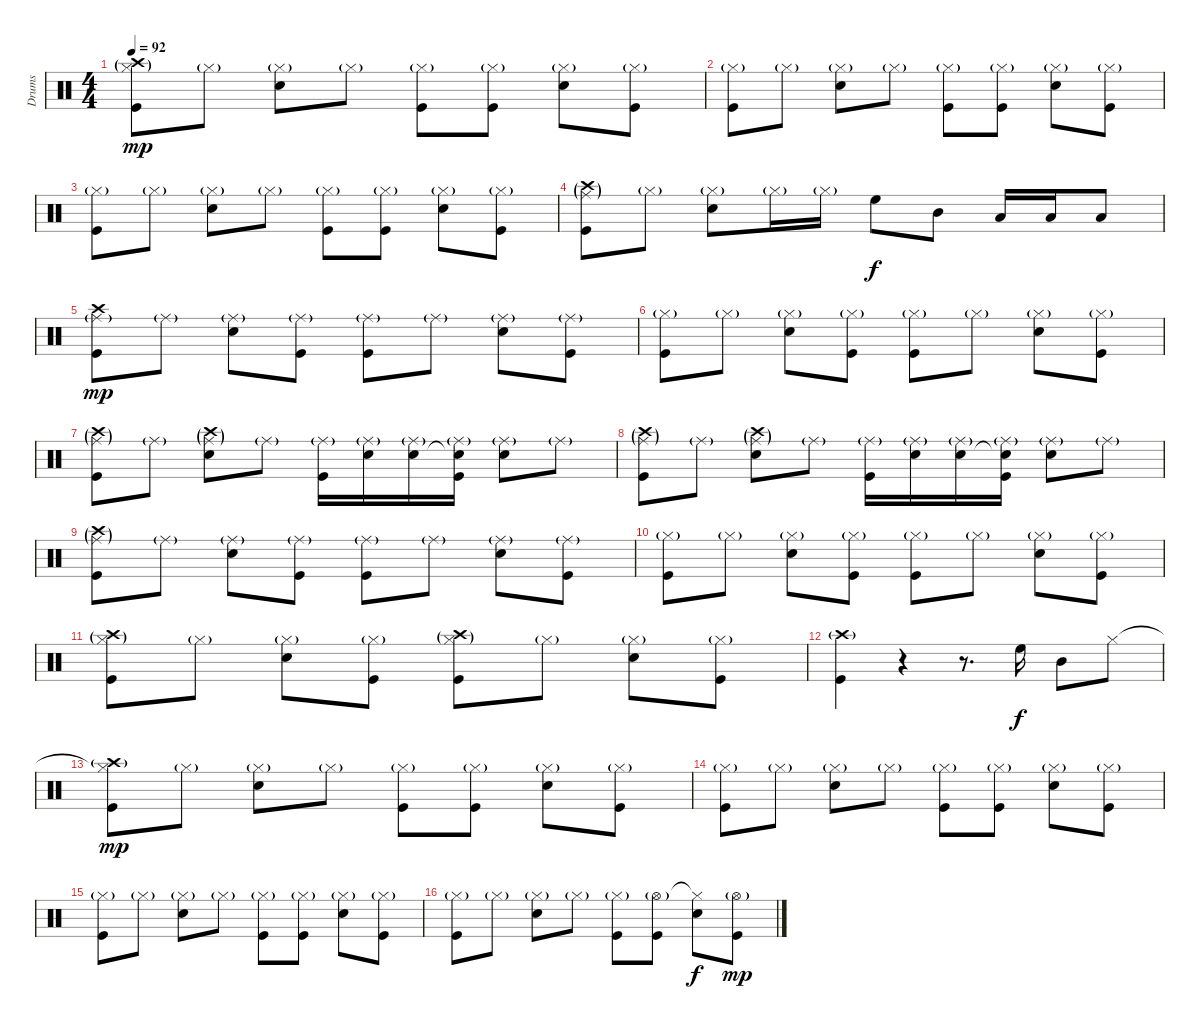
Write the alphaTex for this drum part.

\track ("Drums" "Drums") {instrument percussion}
\staff {score}
\articulation defaults
\ts (4 4)
\tempo 92
\clef neutral
\ks c
("Hi-Hat (closed)"{g} "Crash high (hit)"{g} "Kick (hit)").8{dy mp} "Hi-Hat (closed)"{g}.8 ("Hi-Hat (closed)"{g} "Snare (hit) 2").8 "Hi-Hat (closed)"{g}.8 ("Hi-Hat (closed)"{g} "Kick (hit)").8 ("Hi-Hat (closed)"{g} "Kick (hit)").8 ("Hi-Hat (closed)"{g} "Snare (hit) 2").8 ("Hi-Hat (closed)"{g} "Kick (hit)").8 |
("Hi-Hat (closed)"{g} "Kick (hit)").8 "Hi-Hat (closed)"{g}.8 ("Hi-Hat (closed)"{g} "Snare (hit) 2").8 "Hi-Hat (closed)"{g}.8 ("Hi-Hat (closed)"{g} "Kick (hit)").8 ("Hi-Hat (closed)"{g} "Kick (hit)").8 ("Hi-Hat (closed)"{g} "Snare (hit) 2").8 ("Hi-Hat (closed)"{g} "Kick (hit)").8 |
("Hi-Hat (closed)"{g} "Kick (hit)").8 "Hi-Hat (closed)"{g}.8 ("Hi-Hat (closed)"{g} "Snare (hit) 2").8 "Hi-Hat (closed)"{g}.8 ("Hi-Hat (closed)"{g} "Kick (hit)").8 ("Hi-Hat (closed)"{g} "Kick (hit)").8 ("Hi-Hat (closed)"{g} "Snare (hit) 2").8 ("Hi-Hat (closed)"{g} "Kick (hit)").8 |
("Ride (middle)"{g} "Crash high (hit)"{g} "Kick (hit)").8 "Hi-Hat (closed)"{g}.8 ("Hi-Hat (closed)"{g} "Snare (hit) 2").8 "Hi-Hat (closed)"{g}.16 "Hi-Hat (closed)"{g}.16 "High Floor Tom (hit)".8{dy f} "Mid Tom (hit)".8 "Low Tom (hit)".16 "Low Tom (hit)".16 "Low Floor Tom (hit)".8 |
("Ride (middle)"{g} "Crash high (hit)" "Kick (hit)").8{dy mp} "Ride (middle)"{g}.8 ("Ride (middle)"{g} "Snare (hit) 2").8 ("Ride (middle)"{g} "Kick (hit)").8 ("Ride (middle)"{g} "Kick (hit)").8 "Ride (middle)"{g}.8 ("Ride (middle)"{g} "Snare (hit) 2").8 ("Ride (middle)"{g} "Kick (hit)").8 |
("Hi-Hat (closed)"{g} "Kick (hit)").8 "Hi-Hat (closed)"{g}.8 ("Hi-Hat (closed)"{g} "Snare (hit) 2").8 ("Hi-Hat (closed)"{g} "Kick (hit)").8 ("Hi-Hat (closed)"{g} "Kick (hit)").8 "Hi-Hat (closed)"{g}.8 ("Hi-Hat (closed)"{g} "Snare (hit) 2").8 ("Hi-Hat (closed)"{g} "Kick (hit)").8 |
("Ride (middle)"{g} "Crash high (hit)"{g} "Kick (hit)").8 "Ride (middle)"{g}.8 ("Ride (middle)"{g} "Crash high (hit)"{g} "Snare (hit) 2").8 "Ride (middle)"{g}.8 ("Ride (middle)"{g} "Kick (hit)").16 ("Ride (middle)"{g} "Snare (hit) 2").16 ("Ride (middle)"{g} "Snare (hit) 2").16 ("Ride (middle)"{g} "Snare (hit)"{t} "Kick (hit)").16 ("Ride (middle)"{g} "Snare (hit) 2").8 "Ride (middle)"{g}.8 |
("Ride (middle)"{g} "Crash high (hit)"{g} "Kick (hit)").8 "Ride (middle)"{g}.8 ("Ride (middle)"{g} "Crash high (hit)"{g} "Snare (hit) 2").8 "Ride (middle)"{g}.8 ("Ride (middle)"{g} "Kick (hit)").16 ("Ride (middle)"{g} "Snare (hit) 2").16 ("Ride (middle)"{g} "Snare (hit) 2").16 ("Ride (middle)"{g} "Snare (hit)"{t} "Kick (hit)").16 ("Ride (middle)"{g} "Snare (hit) 2").8 "Ride (middle)"{g}.8 |
("Ride (middle)"{g} "Crash high (hit)"{g} "Kick (hit)").8 "Ride (middle)"{g}.8 ("Ride (middle)"{g} "Snare (hit) 2").8 ("Ride (middle)"{g} "Kick (hit)").8 ("Ride (middle)"{g} "Kick (hit)").8 "Ride (middle)"{g}.8 ("Ride (middle)"{g} "Snare (hit) 2").8 ("Ride (middle)"{g} "Kick (hit)").8 |
("Hi-Hat (closed)"{g} "Kick (hit)").8 "Hi-Hat (closed)"{g}.8 ("Hi-Hat (closed)"{g} "Snare (hit) 2").8 ("Hi-Hat (closed)"{g} "Kick (hit)").8 ("Hi-Hat (closed)"{g} "Kick (hit)").8 "Hi-Hat (closed)"{g}.8 ("Hi-Hat (closed)"{g} "Snare (hit) 2").8 ("Hi-Hat (closed)"{g} "Kick (hit)").8 |
("Hi-Hat (closed)"{g} "Crash high (hit)"{g} "Kick (hit)").8 "Hi-Hat (closed)"{g}.8 ("Hi-Hat (closed)"{g} "Snare (hit) 2").8 ("Hi-Hat (closed)"{g} "Kick (hit)").8 ("Hi-Hat (closed)"{g} "Crash high (hit)"{g} "Kick (hit)").8 "Hi-Hat (closed)"{g}.8 ("Hi-Hat (closed)"{g} "Snare (hit) 2").8 ("Hi-Hat (closed)"{g} "Kick (hit)").8 |
("Crash high (hit)"{g} "Kick (hit)").4 r.4 r.8{d} "High Floor Tom (hit)".16{dy f} "Mid Tom (hit)".8 "Hi-Hat (closed)".8 |
("Hi-Hat (closed)"{t} "Crash high (hit)"{g} "Kick (hit)").8{dy mp} "Hi-Hat (closed)"{g}.8 ("Hi-Hat (closed)"{g} "Snare (hit) 2").8 "Hi-Hat (closed)"{g}.8 ("Hi-Hat (closed)"{g} "Kick (hit)").8 ("Hi-Hat (closed)"{g} "Kick (hit)").8 ("Hi-Hat (closed)"{g} "Snare (hit) 2").8 ("Hi-Hat (closed)"{g} "Kick (hit)").8 |
("Hi-Hat (closed)"{g} "Kick (hit)").8 "Hi-Hat (closed)"{g}.8 ("Hi-Hat (closed)"{g} "Snare (hit) 2").8 "Hi-Hat (closed)"{g}.8 ("Hi-Hat (closed)"{g} "Kick (hit)").8 ("Hi-Hat (closed)"{g} "Kick (hit)").8 ("Hi-Hat (closed)"{g} "Snare (hit) 2").8 ("Hi-Hat (closed)"{g} "Kick (hit)").8 |
("Hi-Hat (closed)"{g} "Kick (hit)").8 "Hi-Hat (closed)"{g}.8 ("Hi-Hat (closed)"{g} "Snare (hit) 2").8 "Hi-Hat (closed)"{g}.8 ("Hi-Hat (closed)"{g} "Kick (hit)").8 ("Hi-Hat (closed)"{g} "Kick (hit)").8 ("Hi-Hat (closed)"{g} "Snare (hit) 2").8 ("Hi-Hat (closed)"{g} "Kick (hit)").8 |
("Hi-Hat (closed)"{g} "Kick (hit)").8 "Hi-Hat (closed)"{g}.8 ("Hi-Hat (closed)"{g} "Snare (hit) 2").8 "Hi-Hat (closed)"{g}.8 ("Hi-Hat (closed)"{g} "Kick (hit)").8 ("Hi-Hat (open)"{g} "Kick (hit)").8 ("Hi-Hat (closed)"{t} "Snare (hit) 2").8{dy f} ("Hi-Hat (open)"{g} "Kick (hit)").8{dy mp}
